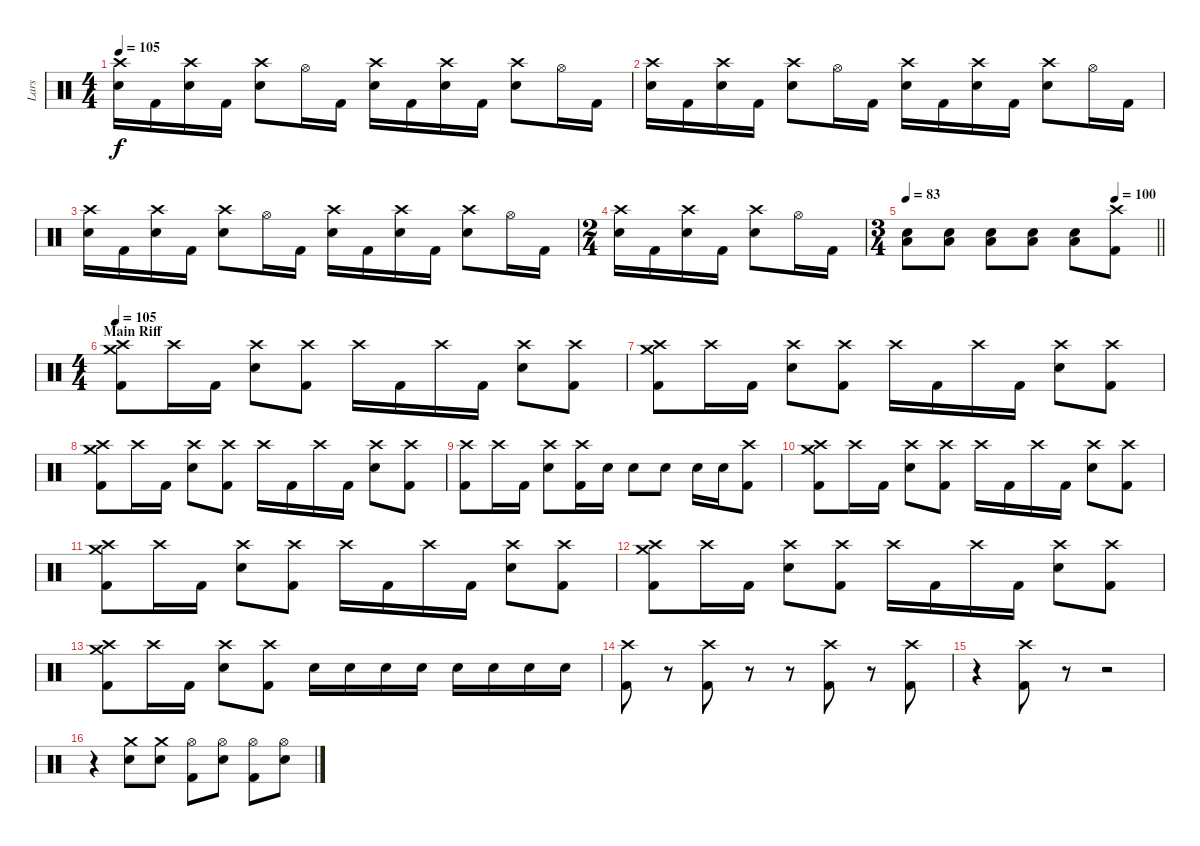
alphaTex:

\track ("Lars" "Lars") {instrument percussion}
\staff {score}
\articulation defaults
\ts (4 4)
\tempo 105
\clef neutral
\ks c
("Crash high (hit)" "Electric Snare (hit)").16{dy f} "Kick (hit) 2".16 ("Crash high (hit)" "Electric Snare (hit)").16 "Kick (hit) 2".16 ("Crash high (hit)" "Electric Snare (hit)").8 "Hi-Hat (open)".16 "Kick (hit) 2".16 ("Crash high (hit)" "Electric Snare (hit)").16 "Kick (hit) 2".16 ("Crash high (hit)" "Electric Snare (hit)").16 "Kick (hit) 2".16 ("Crash high (hit)" "Electric Snare (hit)").8 "Hi-Hat (open)".16 "Kick (hit) 2".16 |
("Crash high (hit)" "Electric Snare (hit)").16 "Kick (hit) 2".16 ("Crash high (hit)" "Electric Snare (hit)").16 "Kick (hit) 2".16 ("Crash high (hit)" "Electric Snare (hit)").8 "Hi-Hat (open)".16 "Kick (hit) 2".16 ("Crash high (hit)" "Electric Snare (hit)").16 "Kick (hit) 2".16 ("Crash high (hit)" "Electric Snare (hit)").16 "Kick (hit) 2".16 ("Crash high (hit)" "Electric Snare (hit)").8 "Hi-Hat (open)".16 "Kick (hit) 2".16 |
("Crash high (hit)" "Electric Snare (hit)").16 "Kick (hit) 2".16 ("Crash high (hit)" "Electric Snare (hit)").16 "Kick (hit) 2".16 ("Crash high (hit)" "Electric Snare (hit)").8 "Hi-Hat (open)".16 "Kick (hit) 2".16 ("Crash high (hit)" "Electric Snare (hit)").16 "Kick (hit) 2".16 ("Crash high (hit)" "Electric Snare (hit)").16 "Kick (hit) 2".16 ("Crash high (hit)" "Electric Snare (hit)").8 "Hi-Hat (open)".16 "Kick (hit) 2".16 |
\ts (2 4)
("Crash high (hit)" "Electric Snare (hit)").16 "Kick (hit) 2".16 ("Crash high (hit)" "Electric Snare (hit)").16 "Kick (hit) 2".16 ("Crash high (hit)" "Electric Snare (hit)").8 "Hi-Hat (open)".16 "Kick (hit) 2".16 |
\ts (3 4)
\tempo 83
\tempo (100 0.8333333333333334)
\barLineRight lightlight
("Low Floor Tom (hit)" "Electric Snare (hit)").8 ("Low Floor Tom (hit)" "Electric Snare (hit)").8 ("Low Floor Tom (hit)" "Electric Snare (hit)").8 ("Low Floor Tom (hit)" "Electric Snare (hit)").8 ("Low Floor Tom (hit)" "Electric Snare (hit)").8 ("Crash high (hit)" "Kick (hit) 2").8 |
\ts (4 4)
\section ("" "Main Riff")
\tempo 105
("Crash medium (hit)" "Crash high (hit)" "Kick (hit) 2").8 "Crash high (hit)".16 "Kick (hit) 2".16 ("Crash high (hit)" "Electric Snare (hit)").8 ("Crash high (hit)" "Kick (hit) 2").8 "Crash high (hit)".16 "Kick (hit) 2".16 "Crash high (hit)".16 "Kick (hit) 2".16 ("Crash high (hit)" "Electric Snare (hit)").8 ("Crash high (hit)" "Kick (hit) 2").8 |
("Crash high (hit)" "Crash medium (hit)" "Kick (hit) 2").8 "Crash high (hit)".16 "Kick (hit) 2".16 ("Crash high (hit)" "Electric Snare (hit)").8 ("Crash high (hit)" "Kick (hit) 2").8 "Crash high (hit)".16 "Kick (hit) 2".16 "Crash high (hit)".16 "Kick (hit) 2".16 ("Crash high (hit)" "Electric Snare (hit)").8 ("Crash high (hit)" "Kick (hit) 2").8 |
("Crash high (hit)" "Crash medium (hit)" "Kick (hit) 2").8 "Crash high (hit)".16 "Kick (hit) 2".16 ("Crash high (hit)" "Electric Snare (hit)").8 ("Crash high (hit)" "Kick (hit) 2").8 "Crash high (hit)".16 "Kick (hit) 2".16 "Crash high (hit)".16 "Kick (hit) 2".16 ("Crash high (hit)" "Electric Snare (hit)").8 ("Crash high (hit)" "Kick (hit) 2").8 |
("Crash high (hit)" "Kick (hit) 2").8 "Crash high (hit)".16 "Kick (hit) 2".16 ("Crash high (hit)" "Electric Snare (hit)").8 ("Crash high (hit)" "Kick (hit) 2").16 "Electric Snare (hit)".16 "Electric Snare (hit)".8 "Electric Snare (hit)".8 "Electric Snare (hit)".16 "Electric Snare (hit)".16 ("Crash high (hit)" "Kick (hit) 2").8 |
("Crash medium (hit)" "Crash high (hit)" "Kick (hit) 2").8 "Crash high (hit)".16 "Kick (hit) 2".16 ("Crash high (hit)" "Electric Snare (hit)").8 ("Crash high (hit)" "Kick (hit) 2").8 "Crash high (hit)".16 "Kick (hit) 2".16 "Crash high (hit)".16 "Kick (hit) 2".16 ("Crash high (hit)" "Electric Snare (hit)").8 ("Crash high (hit)" "Kick (hit) 2").8 |
("Crash high (hit)" "Crash medium (hit)" "Kick (hit) 2").8 "Crash high (hit)".16 "Kick (hit) 2".16 ("Crash high (hit)" "Electric Snare (hit)").8 ("Crash high (hit)" "Kick (hit) 2").8 "Crash high (hit)".16 "Kick (hit) 2".16 "Crash high (hit)".16 "Kick (hit) 2".16 ("Crash high (hit)" "Electric Snare (hit)").8 ("Crash high (hit)" "Kick (hit) 2").8 |
("Crash high (hit)" "Crash medium (hit)" "Kick (hit) 2").8 "Crash high (hit)".16 "Kick (hit) 2".16 ("Crash high (hit)" "Electric Snare (hit)").8 ("Crash high (hit)" "Kick (hit) 2").8 "Crash high (hit)".16 "Kick (hit) 2".16 "Crash high (hit)".16 "Kick (hit) 2".16 ("Crash high (hit)" "Electric Snare (hit)").8 ("Crash high (hit)" "Kick (hit) 2").8 |
("Crash high (hit)" "Crash medium (hit)" "Kick (hit) 2").8 "Crash high (hit)".16 "Kick (hit) 2".16 ("Crash high (hit)" "Electric Snare (hit)").8 ("Crash high (hit)" "Kick (hit) 2").8 "Electric Snare (hit)".16 "Electric Snare (hit)".16 "Electric Snare (hit)".16 "Electric Snare (hit)".16 "Electric Snare (hit)".16 "Electric Snare (hit)".16 "Electric Snare (hit)".16 "Electric Snare (hit)".16 |
("Crash high (hit)" "Kick (hit) 2").8 r.8 ("Crash high (hit)" "Kick (hit) 2").8 r.8 r.8 ("Crash high (hit)" "Kick (hit) 2").8 r.8 ("Crash high (hit)" "Kick (hit) 2").8 |
r.4 ("Crash high (hit)" "Kick (hit) 2").8 r.8 r.2 |
r.4 ("Crash medium (hit)" "Electric Snare (hit)").8 ("Crash medium (hit)" "Electric Snare (hit)").8 ("Hi-Hat (open)" "Kick (hit) 2").8 ("Hi-Hat (open)" "Electric Snare (hit)").8 ("Hi-Hat (open)" "Kick (hit) 2").8 ("Hi-Hat (open)" "Electric Snare (hit)").8
